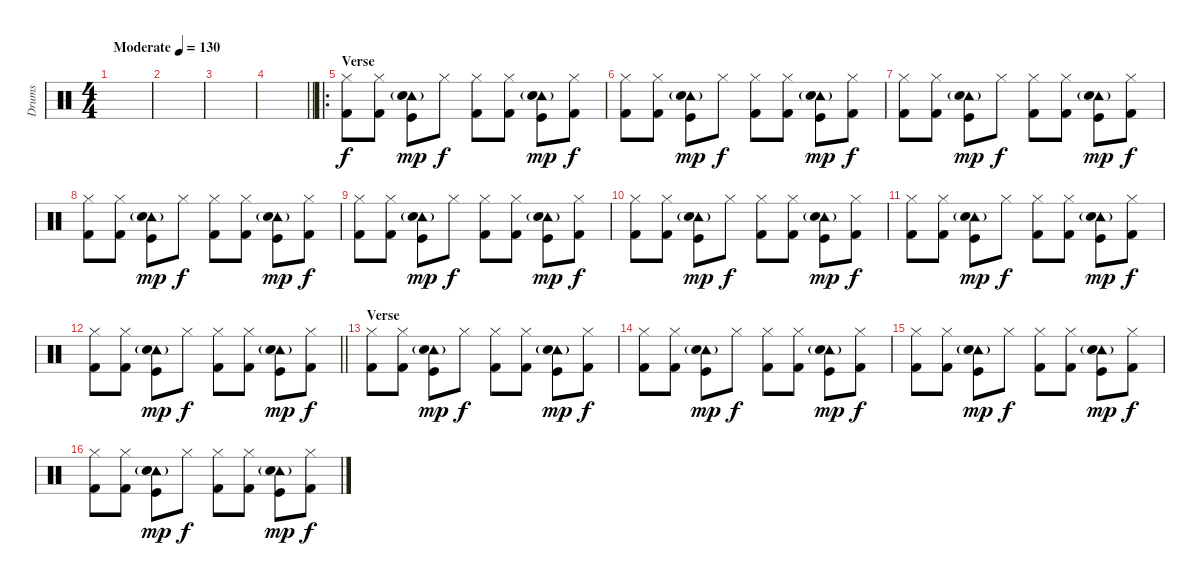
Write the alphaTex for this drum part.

\track ("Drums" "Drums") {instrument percussion}
\staff {score}
\articulation defaults
\ts (4 4)
\tempo (130 "Moderate")
\clef neutral
\ks c
|
|
|
\barLineRight lightlight
|
\ro
\section ("" "Verse")
("Hi-Hat (closed)" "Kick (hit) 2").8 ("Hi-Hat (closed)" "Kick (hit) 2").8 ("Tambourine (hit)" "Snare (hit) 2"{g} "Kick (hit)").8{dy mp} "Hi-Hat (closed)".8{dy f} ("Hi-Hat (closed)" "Kick (hit) 2").8 ("Hi-Hat (closed)" "Kick (hit) 2").8 ("Tambourine (hit)" "Snare (hit) 2"{g} "Kick (hit)").8{dy mp} ("Hi-Hat (closed)" "Kick (hit) 2").8{dy f} |
("Hi-Hat (closed)" "Kick (hit) 2").8 ("Hi-Hat (closed)" "Kick (hit) 2").8 ("Tambourine (hit)" "Snare (hit) 2"{g} "Kick (hit)").8{dy mp} "Hi-Hat (closed)".8{dy f} ("Hi-Hat (closed)" "Kick (hit) 2").8 ("Hi-Hat (closed)" "Kick (hit) 2").8 ("Tambourine (hit)" "Snare (hit) 2"{g} "Kick (hit)").8{dy mp} ("Hi-Hat (closed)" "Kick (hit) 2").8{dy f} |
("Hi-Hat (closed)" "Kick (hit) 2").8 ("Hi-Hat (closed)" "Kick (hit) 2").8 ("Tambourine (hit)" "Snare (hit) 2"{g} "Kick (hit)").8{dy mp} "Hi-Hat (closed)".8{dy f} ("Hi-Hat (closed)" "Kick (hit) 2").8 ("Hi-Hat (closed)" "Kick (hit) 2").8 ("Tambourine (hit)" "Snare (hit) 2"{g} "Kick (hit)").8{dy mp} ("Hi-Hat (closed)" "Kick (hit) 2").8{dy f} |
("Hi-Hat (closed)" "Kick (hit) 2").8 ("Hi-Hat (closed)" "Kick (hit) 2").8 ("Tambourine (hit)" "Snare (hit) 2"{g} "Kick (hit)").8{dy mp} "Hi-Hat (closed)".8{dy f} ("Hi-Hat (closed)" "Kick (hit) 2").8 ("Hi-Hat (closed)" "Kick (hit) 2").8 ("Tambourine (hit)" "Snare (hit) 2"{g} "Kick (hit)").8{dy mp} ("Hi-Hat (closed)" "Kick (hit) 2").8{dy f} |
("Hi-Hat (closed)" "Kick (hit) 2").8 ("Hi-Hat (closed)" "Kick (hit) 2").8 ("Tambourine (hit)" "Snare (hit) 2"{g} "Kick (hit)").8{dy mp} "Hi-Hat (closed)".8{dy f} ("Hi-Hat (closed)" "Kick (hit) 2").8 ("Hi-Hat (closed)" "Kick (hit) 2").8 ("Tambourine (hit)" "Snare (hit) 2"{g} "Kick (hit)").8{dy mp} ("Hi-Hat (closed)" "Kick (hit) 2").8{dy f} |
("Hi-Hat (closed)" "Kick (hit) 2").8 ("Hi-Hat (closed)" "Kick (hit) 2").8 ("Tambourine (hit)" "Snare (hit) 2"{g} "Kick (hit)").8{dy mp} "Hi-Hat (closed)".8{dy f} ("Hi-Hat (closed)" "Kick (hit) 2").8 ("Hi-Hat (closed)" "Kick (hit) 2").8 ("Tambourine (hit)" "Snare (hit) 2"{g} "Kick (hit)").8{dy mp} ("Hi-Hat (closed)" "Kick (hit) 2").8{dy f} |
("Hi-Hat (closed)" "Kick (hit) 2").8 ("Hi-Hat (closed)" "Kick (hit) 2").8 ("Tambourine (hit)" "Snare (hit) 2"{g} "Kick (hit)").8{dy mp} "Hi-Hat (closed)".8{dy f} ("Hi-Hat (closed)" "Kick (hit) 2").8 ("Hi-Hat (closed)" "Kick (hit) 2").8 ("Tambourine (hit)" "Snare (hit) 2"{g} "Kick (hit)").8{dy mp} ("Hi-Hat (closed)" "Kick (hit) 2").8{dy f} |
\barLineRight lightlight
("Hi-Hat (closed)" "Kick (hit) 2").8 ("Hi-Hat (closed)" "Kick (hit) 2").8 ("Tambourine (hit)" "Snare (hit) 2"{g} "Kick (hit)").8{dy mp} "Hi-Hat (closed)".8{dy f} ("Hi-Hat (closed)" "Kick (hit) 2").8 ("Hi-Hat (closed)" "Kick (hit) 2").8 ("Tambourine (hit)" "Snare (hit) 2"{g} "Kick (hit)").8{dy mp} ("Hi-Hat (closed)" "Kick (hit) 2").8{dy f} |
\section ("" "Verse")
("Hi-Hat (closed)" "Kick (hit) 2").8 ("Hi-Hat (closed)" "Kick (hit) 2").8 ("Tambourine (hit)" "Snare (hit) 2"{g} "Kick (hit)").8{dy mp} "Hi-Hat (closed)".8{dy f} ("Hi-Hat (closed)" "Kick (hit) 2").8 ("Hi-Hat (closed)" "Kick (hit) 2").8 ("Tambourine (hit)" "Snare (hit) 2"{g} "Kick (hit)").8{dy mp} ("Hi-Hat (closed)" "Kick (hit) 2").8{dy f} |
("Hi-Hat (closed)" "Kick (hit) 2").8 ("Hi-Hat (closed)" "Kick (hit) 2").8 ("Tambourine (hit)" "Snare (hit) 2"{g} "Kick (hit)").8{dy mp} "Hi-Hat (closed)".8{dy f} ("Hi-Hat (closed)" "Kick (hit) 2").8 ("Hi-Hat (closed)" "Kick (hit) 2").8 ("Tambourine (hit)" "Snare (hit) 2"{g} "Kick (hit)").8{dy mp} ("Hi-Hat (closed)" "Kick (hit) 2").8{dy f} |
("Hi-Hat (closed)" "Kick (hit) 2").8 ("Hi-Hat (closed)" "Kick (hit) 2").8 ("Tambourine (hit)" "Snare (hit) 2"{g} "Kick (hit)").8{dy mp} "Hi-Hat (closed)".8{dy f} ("Hi-Hat (closed)" "Kick (hit) 2").8 ("Hi-Hat (closed)" "Kick (hit) 2").8 ("Tambourine (hit)" "Snare (hit) 2"{g} "Kick (hit)").8{dy mp} ("Hi-Hat (closed)" "Kick (hit) 2").8{dy f} |
("Hi-Hat (closed)" "Kick (hit) 2").8 ("Hi-Hat (closed)" "Kick (hit) 2").8 ("Tambourine (hit)" "Snare (hit) 2"{g} "Kick (hit)").8{dy mp} "Hi-Hat (closed)".8{dy f} ("Hi-Hat (closed)" "Kick (hit) 2").8 ("Hi-Hat (closed)" "Kick (hit) 2").8 ("Tambourine (hit)" "Snare (hit) 2"{g} "Kick (hit)").8{dy mp} ("Hi-Hat (closed)" "Kick (hit) 2").8{dy f}
